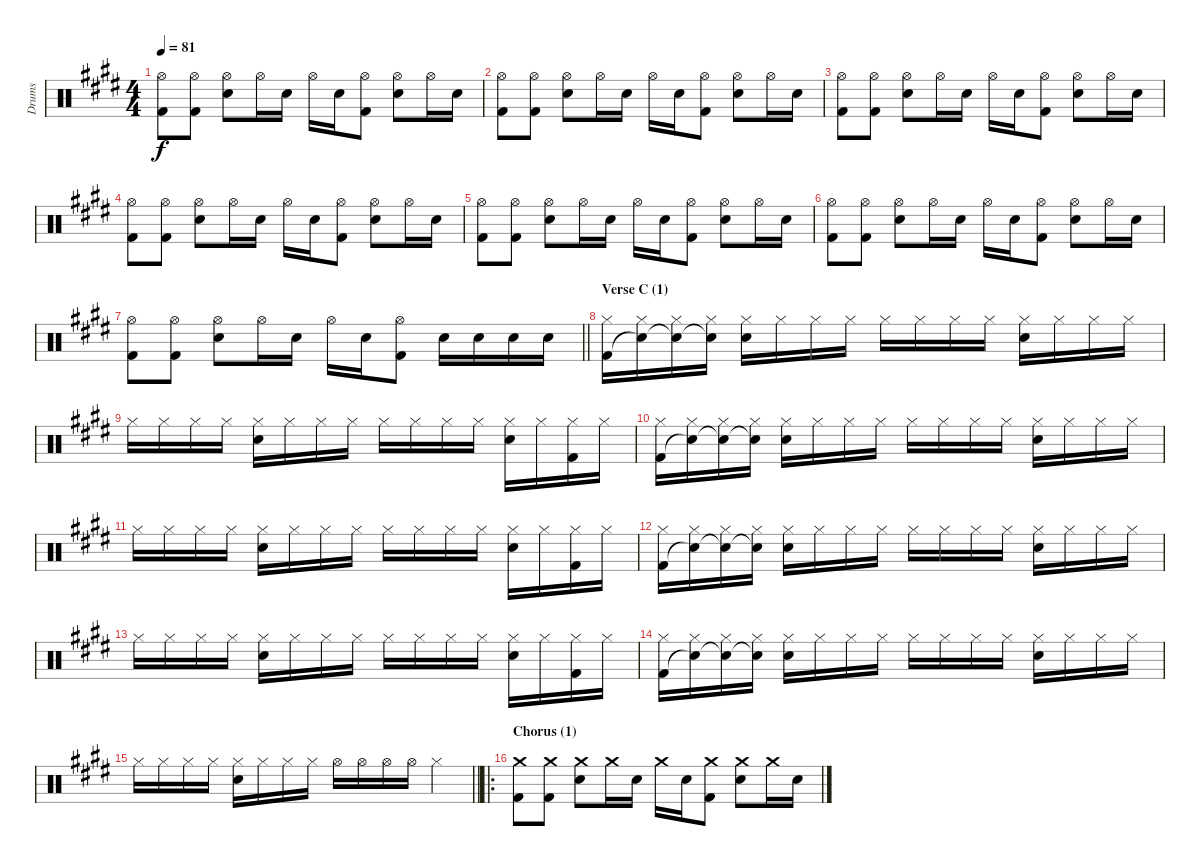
\track ("Drums" "Drums") {instrument percussion}
\staff {score}
\articulation defaults
\ts (4 4)
\tempo 81
\clef neutral
\ks c#minor
("Hi-Hat (open)" "Kick (hit) 2").8{dy f} ("Hi-Hat (open)" "Kick (hit) 2").8 ("Hi-Hat (open)" "Electric Snare (hit)").8 "Hi-Hat (open)".16 "Electric Snare (hit)".16 "Hi-Hat (open)".16 "Electric Snare (hit)".16 ("Hi-Hat (open)" "Kick (hit) 2").8 ("Hi-Hat (open)" "Electric Snare (hit)").8 "Hi-Hat (open)".16 "Electric Snare (hit)".16 |
("Hi-Hat (open)" "Kick (hit) 2").8 ("Hi-Hat (open)" "Kick (hit) 2").8 ("Hi-Hat (open)" "Electric Snare (hit)").8 "Hi-Hat (open)".16 "Electric Snare (hit)".16 "Hi-Hat (open)".16 "Electric Snare (hit)".16 ("Hi-Hat (open)" "Kick (hit) 2").8 ("Hi-Hat (open)" "Electric Snare (hit)").8 "Hi-Hat (open)".16 "Electric Snare (hit)".16 |
("Hi-Hat (open)" "Kick (hit) 2").8 ("Hi-Hat (open)" "Kick (hit) 2").8 ("Hi-Hat (open)" "Electric Snare (hit)").8 "Hi-Hat (open)".16 "Electric Snare (hit)".16 "Hi-Hat (open)".16 "Electric Snare (hit)".16 ("Hi-Hat (open)" "Kick (hit) 2").8 ("Hi-Hat (open)" "Electric Snare (hit)").8 "Hi-Hat (open)".16 "Electric Snare (hit)".16 |
("Hi-Hat (open)" "Kick (hit) 2").8 ("Hi-Hat (open)" "Kick (hit) 2").8 ("Hi-Hat (open)" "Electric Snare (hit)").8 "Hi-Hat (open)".16 "Electric Snare (hit)".16 "Hi-Hat (open)".16 "Electric Snare (hit)".16 ("Hi-Hat (open)" "Kick (hit) 2").8 ("Hi-Hat (open)" "Electric Snare (hit)").8 "Hi-Hat (open)".16 "Electric Snare (hit)".16 |
("Hi-Hat (open)" "Kick (hit) 2").8 ("Hi-Hat (open)" "Kick (hit) 2").8 ("Hi-Hat (open)" "Electric Snare (hit)").8 "Hi-Hat (open)".16 "Electric Snare (hit)".16 "Hi-Hat (open)".16 "Electric Snare (hit)".16 ("Hi-Hat (open)" "Kick (hit) 2").8 ("Hi-Hat (open)" "Electric Snare (hit)").8 "Hi-Hat (open)".16 "Electric Snare (hit)".16 |
("Hi-Hat (open)" "Kick (hit) 2").8 ("Hi-Hat (open)" "Kick (hit) 2").8 ("Hi-Hat (open)" "Electric Snare (hit)").8 "Hi-Hat (open)".16 "Electric Snare (hit)".16 "Hi-Hat (open)".16 "Electric Snare (hit)".16 ("Hi-Hat (open)" "Kick (hit) 2").8 ("Hi-Hat (open)" "Electric Snare (hit)").8 "Hi-Hat (open)".16 "Electric Snare (hit)".16 |
\barLineRight lightlight
("Hi-Hat (open)" "Kick (hit) 2").8 ("Hi-Hat (open)" "Kick (hit) 2").8 ("Hi-Hat (open)" "Electric Snare (hit)").8 "Hi-Hat (open)".16 "Electric Snare (hit)".16 "Hi-Hat (open)".16 "Electric Snare (hit)".16 ("Hi-Hat (open)" "Kick (hit) 2").8 "Electric Snare (hit)".16 "Electric Snare (hit)".16 "Electric Snare (hit)".16 "Electric Snare (hit)".16 |
\section ("" "Verse C (1)")
("Hi-Hat (closed)" "Kick (hit) 2").16 ("Hi-Hat (closed)" "Snare (hit)"{t}).16 ("Hi-Hat (closed)" "Snare (hit)"{t}).16 ("Hi-Hat (closed)" "Snare (hit)"{t}).16 ("Hi-Hat (closed)" "Electric Snare (hit)").16 "Hi-Hat (closed)".16 "Hi-Hat (closed)".16 "Hi-Hat (closed)".16 "Hi-Hat (closed)".16 "Hi-Hat (closed)".16 "Hi-Hat (closed)".16 "Hi-Hat (closed)".16 ("Hi-Hat (closed)" "Electric Snare (hit)").16 "Hi-Hat (closed)".16 "Hi-Hat (closed)".16 "Hi-Hat (closed)".16 |
"Hi-Hat (closed)".16 "Hi-Hat (closed)".16 "Hi-Hat (closed)".16 "Hi-Hat (closed)".16 ("Hi-Hat (closed)" "Electric Snare (hit)").16 "Hi-Hat (closed)".16 "Hi-Hat (closed)".16 "Hi-Hat (closed)".16 "Hi-Hat (closed)".16 "Hi-Hat (closed)".16 "Hi-Hat (closed)".16 "Hi-Hat (closed)".16 ("Hi-Hat (closed)" "Electric Snare (hit)").16 "Hi-Hat (closed)".16 ("Hi-Hat (closed)" "Kick (hit) 2").16 "Hi-Hat (closed)".16 |
("Hi-Hat (closed)" "Kick (hit) 2").16 ("Hi-Hat (closed)" "Snare (hit)"{t}).16 ("Hi-Hat (closed)" "Snare (hit)"{t}).16 ("Hi-Hat (closed)" "Snare (hit)"{t}).16 ("Hi-Hat (closed)" "Electric Snare (hit)").16 "Hi-Hat (closed)".16 "Hi-Hat (closed)".16 "Hi-Hat (closed)".16 "Hi-Hat (closed)".16 "Hi-Hat (closed)".16 "Hi-Hat (closed)".16 "Hi-Hat (closed)".16 ("Hi-Hat (closed)" "Electric Snare (hit)").16 "Hi-Hat (closed)".16 "Hi-Hat (closed)".16 "Hi-Hat (closed)".16 |
"Hi-Hat (closed)".16 "Hi-Hat (closed)".16 "Hi-Hat (closed)".16 "Hi-Hat (closed)".16 ("Hi-Hat (closed)" "Electric Snare (hit)").16 "Hi-Hat (closed)".16 "Hi-Hat (closed)".16 "Hi-Hat (closed)".16 "Hi-Hat (closed)".16 "Hi-Hat (closed)".16 "Hi-Hat (closed)".16 "Hi-Hat (closed)".16 ("Hi-Hat (closed)" "Electric Snare (hit)").16 "Hi-Hat (closed)".16 ("Hi-Hat (closed)" "Kick (hit) 2").16 "Hi-Hat (closed)".16 |
("Hi-Hat (closed)" "Kick (hit) 2").16 ("Hi-Hat (closed)" "Snare (hit)"{t}).16 ("Hi-Hat (closed)" "Snare (hit)"{t}).16 ("Hi-Hat (closed)" "Snare (hit)"{t}).16 ("Hi-Hat (closed)" "Electric Snare (hit)").16 "Hi-Hat (closed)".16 "Hi-Hat (closed)".16 "Hi-Hat (closed)".16 "Hi-Hat (closed)".16 "Hi-Hat (closed)".16 "Hi-Hat (closed)".16 "Hi-Hat (closed)".16 ("Hi-Hat (closed)" "Electric Snare (hit)").16 "Hi-Hat (closed)".16 "Hi-Hat (closed)".16 "Hi-Hat (closed)".16 |
"Hi-Hat (closed)".16 "Hi-Hat (closed)".16 "Hi-Hat (closed)".16 "Hi-Hat (closed)".16 ("Hi-Hat (closed)" "Electric Snare (hit)").16 "Hi-Hat (closed)".16 "Hi-Hat (closed)".16 "Hi-Hat (closed)".16 "Hi-Hat (closed)".16 "Hi-Hat (closed)".16 "Hi-Hat (closed)".16 "Hi-Hat (closed)".16 ("Hi-Hat (closed)" "Electric Snare (hit)").16 "Hi-Hat (closed)".16 ("Hi-Hat (closed)" "Kick (hit) 2").16 "Hi-Hat (closed)".16 |
("Hi-Hat (closed)" "Kick (hit) 2").16 ("Hi-Hat (closed)" "Snare (hit)"{t}).16 ("Hi-Hat (closed)" "Snare (hit)"{t}).16 ("Hi-Hat (closed)" "Snare (hit)"{t}).16 ("Hi-Hat (closed)" "Electric Snare (hit)").16 "Hi-Hat (closed)".16 "Hi-Hat (closed)".16 "Hi-Hat (closed)".16 "Hi-Hat (closed)".16 "Hi-Hat (closed)".16 "Hi-Hat (closed)".16 "Hi-Hat (closed)".16 ("Hi-Hat (closed)" "Electric Snare (hit)").16 "Hi-Hat (closed)".16 "Hi-Hat (closed)".16 "Hi-Hat (closed)".16 |
\barLineRight lightlight "Hi-Hat (closed)".16 "Hi-Hat (closed)".16 "Hi-Hat (closed)".16 "Hi-Hat (closed)".16
("Hi-Hat (closed)" "Electric Snare (hit)").16 "Hi-Hat (closed)".16 "Hi-Hat (closed)".16 "Hi-Hat (closed)".16 "Hi-Hat (open)".16 "Hi-Hat (open)".16 "Hi-Hat (open)".16 "Hi-Hat (open)".16 "Hi-Hat (closed)".4 |
\ro
\section ("" "Chorus (1)")
("Crash medium (hit)" "Kick (hit) 2").8 ("Crash medium (hit)" "Kick (hit) 2").8 ("Crash medium (hit)" "Electric Snare (hit)").8 "Crash medium (hit)".16 "Electric Snare (hit)".16 "Crash medium (hit)".16 "Electric Snare (hit)".16 ("Crash medium (hit)" "Kick (hit) 2").8 ("Crash medium (hit)" "Electric Snare (hit)").8 "Crash medium (hit)".16 "Electric Snare (hit)".16
